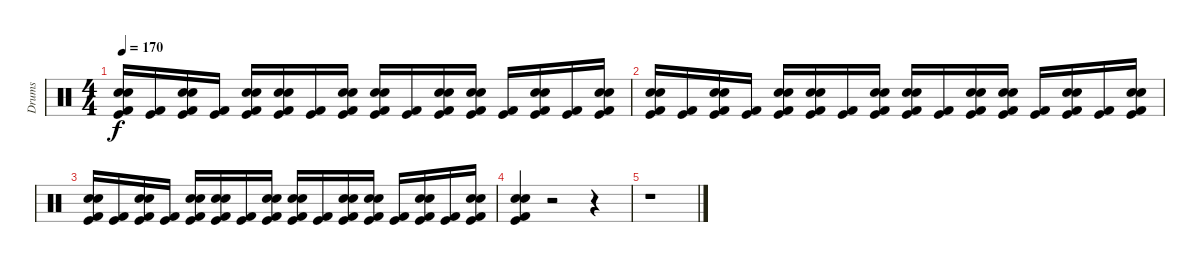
\track ("Drums" "Drums") {instrument percussion}
\staff {score}
\articulation defaults
\ts (4 4)
\tempo 170
\clef neutral
\ks c
("Electric Snare (hit)" "Snare (hit) 2" "Kick (hit) 2" "Kick (hit)").16{dy f} ("Kick (hit) 2" "Kick (hit)").16 ("Electric Snare (hit)" "Snare (hit) 2" "Kick (hit) 2" "Kick (hit)").16 ("Kick (hit) 2" "Kick (hit)").16 ("Electric Snare (hit)" "Snare (hit) 2" "Kick (hit) 2" "Kick (hit)").16 ("Snare (hit) 2" "Electric Snare (hit)" "Kick (hit) 2" "Kick (hit)").16 ("Kick (hit) 2" "Kick (hit)").16 ("Electric Snare (hit)" "Snare (hit) 2" "Kick (hit) 2" "Kick (hit)").16 ("Electric Snare (hit)" "Snare (hit) 2" "Kick (hit) 2" "Kick (hit)").16 ("Kick (hit) 2" "Kick (hit)").16 ("Electric Snare (hit)" "Snare (hit) 2" "Kick (hit) 2" "Kick (hit)").16 ("Electric Snare (hit)" "Snare (hit) 2" "Kick (hit) 2" "Kick (hit)").16 ("Kick (hit) 2" "Kick (hit)").16 ("Electric Snare (hit)" "Snare (hit) 2" "Kick (hit) 2" "Kick (hit)").16 ("Kick (hit) 2" "Kick (hit)").16 ("Electric Snare (hit)" "Snare (hit) 2" "Kick (hit) 2" "Kick (hit)").16 |
("Electric Snare (hit)" "Snare (hit) 2" "Kick (hit) 2" "Kick (hit)").16 ("Kick (hit) 2" "Kick (hit)").16 ("Electric Snare (hit)" "Snare (hit) 2" "Kick (hit) 2" "Kick (hit)").16 ("Kick (hit) 2" "Kick (hit)").16 ("Electric Snare (hit)" "Snare (hit) 2" "Kick (hit) 2" "Kick (hit)").16 ("Snare (hit) 2" "Electric Snare (hit)" "Kick (hit) 2" "Kick (hit)").16 ("Kick (hit) 2" "Kick (hit)").16 ("Electric Snare (hit)" "Snare (hit) 2" "Kick (hit) 2" "Kick (hit)").16 ("Electric Snare (hit)" "Snare (hit) 2" "Kick (hit) 2" "Kick (hit)").16 ("Kick (hit) 2" "Kick (hit)").16 ("Electric Snare (hit)" "Snare (hit) 2" "Kick (hit) 2" "Kick (hit)").16 ("Electric Snare (hit)" "Snare (hit) 2" "Kick (hit) 2" "Kick (hit)").16 ("Kick (hit) 2" "Kick (hit)").16 ("Electric Snare (hit)" "Snare (hit) 2" "Kick (hit) 2" "Kick (hit)").16 ("Kick (hit) 2" "Kick (hit)").16 ("Electric Snare (hit)" "Snare (hit) 2" "Kick (hit) 2" "Kick (hit)").16 |
("Electric Snare (hit)" "Snare (hit) 2" "Kick (hit) 2" "Kick (hit)").16 ("Kick (hit) 2" "Kick (hit)").16 ("Electric Snare (hit)" "Snare (hit) 2" "Kick (hit) 2" "Kick (hit)").16 ("Kick (hit) 2" "Kick (hit)").16 ("Electric Snare (hit)" "Snare (hit) 2" "Kick (hit) 2" "Kick (hit)").16 ("Snare (hit) 2" "Electric Snare (hit)" "Kick (hit) 2" "Kick (hit)").16 ("Kick (hit) 2" "Kick (hit)").16 ("Electric Snare (hit)" "Snare (hit) 2" "Kick (hit) 2" "Kick (hit)").16 ("Electric Snare (hit)" "Snare (hit) 2" "Kick (hit) 2" "Kick (hit)").16 ("Kick (hit) 2" "Kick (hit)").16 ("Electric Snare (hit)" "Snare (hit) 2" "Kick (hit) 2" "Kick (hit)").16 ("Electric Snare (hit)" "Snare (hit) 2" "Kick (hit) 2" "Kick (hit)").16 ("Kick (hit) 2" "Kick (hit)").16 ("Electric Snare (hit)" "Snare (hit) 2" "Kick (hit) 2" "Kick (hit)").16 ("Kick (hit) 2" "Kick (hit)").16 ("Electric Snare (hit)" "Snare (hit) 2" "Kick (hit) 2" "Kick (hit)").16 |
("Electric Snare (hit)" "Snare (hit) 2" "Kick (hit) 2" "Kick (hit)").4 r.2 r.4 |
r.1
